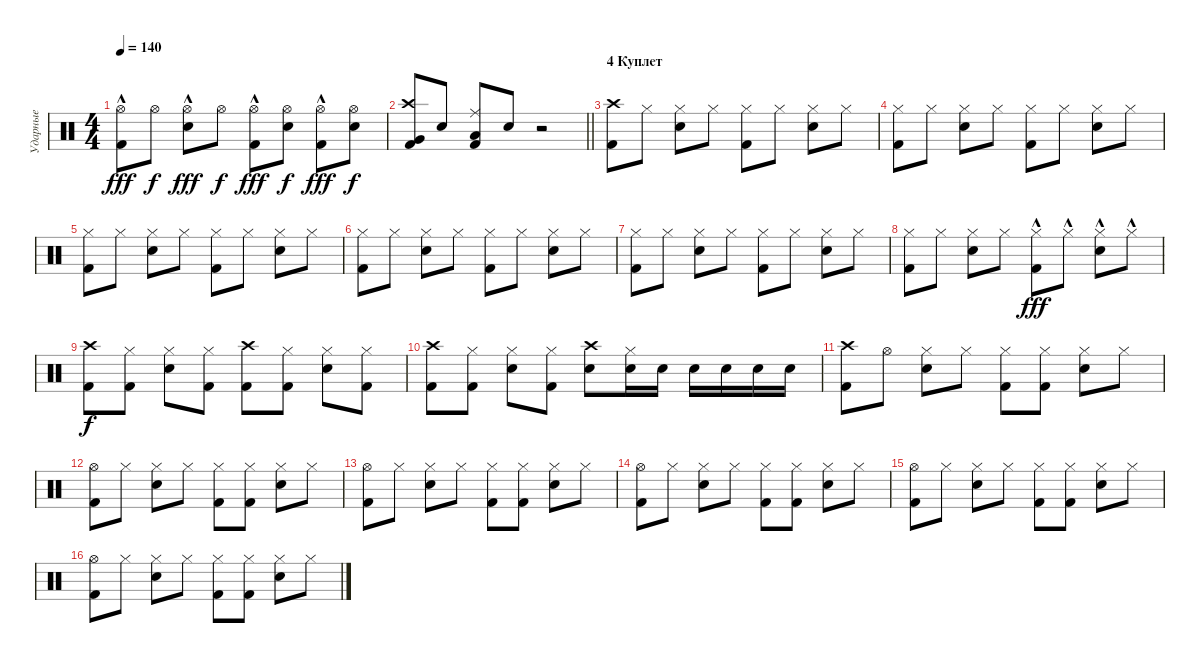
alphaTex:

\track ("Ударные" "Ударные") {instrument percussion}
\staff {score}
\articulation defaults
\ts (4 4)
\tempo 140
\clef neutral
\ks c
("Hi-Hat (open)"{hac} "Kick (hit) 2").8{dy fff} "Hi-Hat (open)".8{dy f} ("Hi-Hat (open)"{hac} "Electric Snare (hit)").8{dy fff} "Hi-Hat (open)".8{dy f} ("Hi-Hat (open)"{hac} "Kick (hit) 2").8{dy fff} ("Hi-Hat (open)" "Electric Snare (hit)").8{dy f} ("Hi-Hat (open)"{hac} "Kick (hit) 2").8{dy fff} ("Hi-Hat (open)" "Electric Snare (hit)").8{dy f} |
\barLineRight lightlight
("Crash high (hit)" "Kick (hit) 2" "Very Low Tom (hit)").8 "Electric Snare (hit)".8 ("Ride (middle)" "Kick (hit) 2" "Low Floor Tom (hit)").8 "Electric Snare (hit)".8 r.2 |
\section ("" "4 Куплет")
("Crash high (hit)" "Kick (hit) 2").8 "Hi-Hat (closed)".8 ("Hi-Hat (closed)" "Electric Snare (hit)").8 "Hi-Hat (closed)".8 ("Hi-Hat (closed)" "Kick (hit) 2").8 "Hi-Hat (closed)".8 ("Hi-Hat (closed)" "Electric Snare (hit)").8 "Hi-Hat (closed)".8 |
("Hi-Hat (closed)" "Kick (hit) 2").8 "Hi-Hat (closed)".8 ("Hi-Hat (closed)" "Electric Snare (hit)").8 "Hi-Hat (closed)".8 ("Hi-Hat (closed)" "Kick (hit) 2").8 "Hi-Hat (closed)".8 ("Hi-Hat (closed)" "Electric Snare (hit)").8 "Hi-Hat (closed)".8 |
("Hi-Hat (closed)" "Kick (hit) 2").8 "Hi-Hat (closed)".8 ("Hi-Hat (closed)" "Electric Snare (hit)").8 "Hi-Hat (closed)".8 ("Hi-Hat (closed)" "Kick (hit) 2").8 "Hi-Hat (closed)".8 ("Hi-Hat (closed)" "Electric Snare (hit)").8 "Hi-Hat (closed)".8 |
("Hi-Hat (closed)" "Kick (hit) 2").8 "Hi-Hat (closed)".8 ("Hi-Hat (closed)" "Electric Snare (hit)").8 "Hi-Hat (closed)".8 ("Hi-Hat (closed)" "Kick (hit) 2").8 "Hi-Hat (closed)".8 ("Hi-Hat (closed)" "Electric Snare (hit)").8 "Hi-Hat (closed)".8 |
("Hi-Hat (closed)" "Kick (hit) 2").8 "Hi-Hat (closed)".8 ("Hi-Hat (closed)" "Electric Snare (hit)").8 "Hi-Hat (closed)".8 ("Hi-Hat (closed)" "Kick (hit) 2").8 "Hi-Hat (closed)".8 ("Hi-Hat (closed)" "Electric Snare (hit)").8 "Hi-Hat (closed)".8 |
("Hi-Hat (closed)" "Kick (hit) 2").8 "Hi-Hat (closed)".8 ("Hi-Hat (closed)" "Electric Snare (hit)").8 "Hi-Hat (closed)".8 ("Hi-Hat (closed)"{hac} "Kick (hit) 2").8{dy fff} "Hi-Hat (closed)"{hac}.8 ("Hi-Hat (closed)"{hac} "Electric Snare (hit)").8 "Hi-Hat (closed)"{hac}.8 |
("Crash high (hit)" "Kick (hit) 2").8{dy f} ("Hi-Hat (closed)" "Kick (hit) 2").8 ("Hi-Hat (closed)" "Electric Snare (hit)").8 ("Hi-Hat (closed)" "Kick (hit) 2").8 ("Crash high (hit)" "Kick (hit) 2").8 ("Hi-Hat (closed)" "Kick (hit) 2").8 ("Hi-Hat (closed)" "Electric Snare (hit)").8 ("Hi-Hat (closed)" "Kick (hit) 2").8 |
("Crash high (hit)" "Kick (hit) 2").8 ("Hi-Hat (closed)" "Kick (hit) 2").8 ("Hi-Hat (closed)" "Electric Snare (hit)").8 ("Hi-Hat (closed)" "Kick (hit) 2").8 ("Crash high (hit)" "Electric Snare (hit)").8 ("Hi-Hat (closed)" "Electric Snare (hit)").16 "Electric Snare (hit)".16 "Electric Snare (hit)".16 "Electric Snare (hit)".16 "Electric Snare (hit)".16 "Electric Snare (hit)".16 |
("Crash high (hit)" "Kick (hit) 2").8 "Hi-Hat (open)".8 ("Hi-Hat (closed)" "Electric Snare (hit)").8 "Hi-Hat (closed)".8 ("Hi-Hat (closed)" "Kick (hit) 2").8 ("Hi-Hat (closed)" "Kick (hit) 2").8 ("Hi-Hat (closed)" "Electric Snare (hit)").8 "Hi-Hat (closed)".8 |
("Hi-Hat (open)" "Kick (hit) 2").8 "Hi-Hat (closed)".8 ("Hi-Hat (closed)" "Electric Snare (hit)").8 "Hi-Hat (closed)".8 ("Hi-Hat (closed)" "Kick (hit) 2").8 ("Hi-Hat (closed)" "Kick (hit) 2").8 ("Hi-Hat (closed)" "Electric Snare (hit)").8 "Hi-Hat (closed)".8 |
("Hi-Hat (open)" "Kick (hit) 2").8 "Hi-Hat (closed)".8 ("Hi-Hat (closed)" "Electric Snare (hit)").8 "Hi-Hat (closed)".8 ("Hi-Hat (closed)" "Kick (hit) 2").8 ("Hi-Hat (closed)" "Kick (hit) 2").8 ("Hi-Hat (closed)" "Electric Snare (hit)").8 "Hi-Hat (closed)".8 |
("Hi-Hat (open)" "Kick (hit) 2").8 "Hi-Hat (closed)".8 ("Hi-Hat (closed)" "Electric Snare (hit)").8 "Hi-Hat (closed)".8 ("Hi-Hat (closed)" "Kick (hit) 2").8 ("Hi-Hat (closed)" "Kick (hit) 2").8 ("Hi-Hat (closed)" "Electric Snare (hit)").8 "Hi-Hat (closed)".8 |
("Hi-Hat (open)" "Kick (hit) 2").8 "Hi-Hat (closed)".8 ("Hi-Hat (closed)" "Electric Snare (hit)").8 "Hi-Hat (closed)".8 ("Hi-Hat (closed)" "Kick (hit) 2").8 ("Hi-Hat (closed)" "Kick (hit) 2").8 ("Hi-Hat (closed)" "Electric Snare (hit)").8 "Hi-Hat (closed)".8 |
("Hi-Hat (open)" "Kick (hit) 2").8 "Hi-Hat (closed)".8 ("Hi-Hat (closed)" "Electric Snare (hit)").8 "Hi-Hat (closed)".8 ("Hi-Hat (closed)" "Kick (hit) 2").8 ("Hi-Hat (closed)" "Kick (hit) 2").8 ("Hi-Hat (closed)" "Electric Snare (hit)").8 "Hi-Hat (closed)".8
